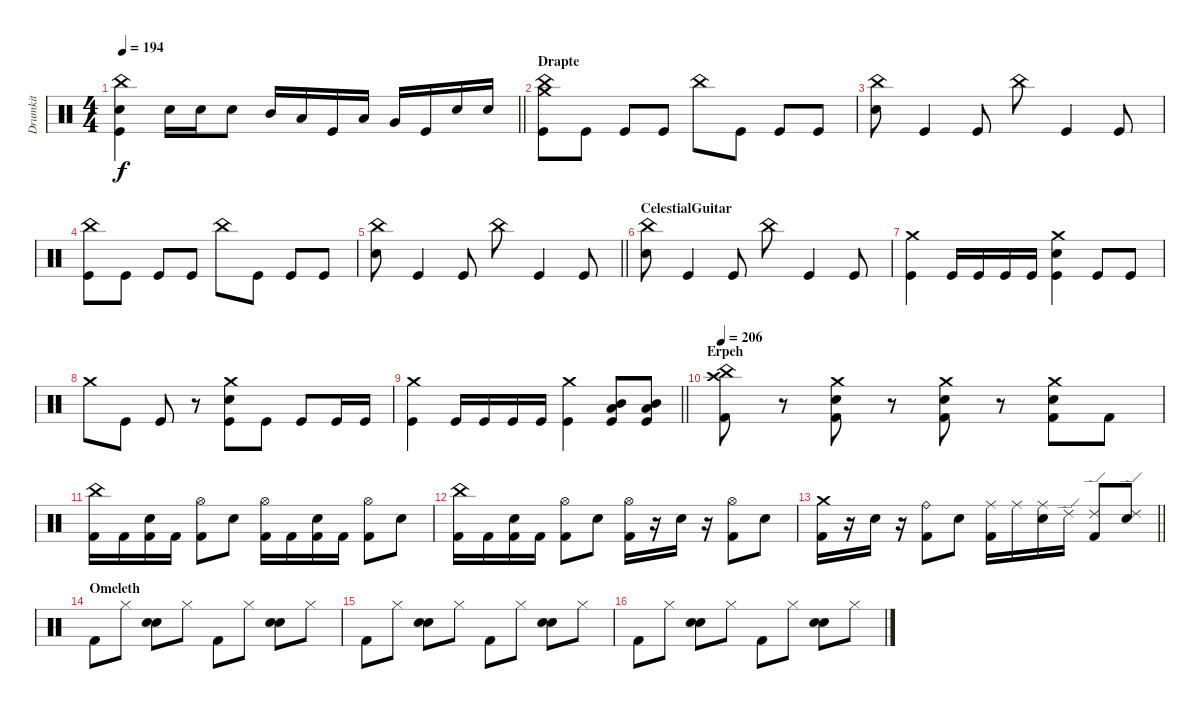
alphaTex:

\track ("Drumkit" "Drumkit") {instrument percussion}
\staff {score}
\articulation defaults
\ts (4 4)
\tempo 194
\clef neutral
\barLineRight lightlight
\ks c
("China (hit)" "Snare (hit) 2" "Kick (hit)").4{dy f} "Snare (hit) 2".16 "Snare (hit) 2".16 "Snare (hit) 2".8 "Mid Tom (hit)".16 "Low Tom (hit)".16 "Kick (hit)".16 "Low Tom (hit)".16 "Very Low Tom (hit)".16 "Kick (hit)".16 "Snare (hit) 2".16 "Snare (hit) 2".16 |
\section ("" "Drapte")
("Crash medium (hit)" "China (hit)" "Kick (hit)").8 "Kick (hit)".8 "Kick (hit)".8 "Kick (hit)".8 "China (hit)".8 "Kick (hit)".8 "Kick (hit)".8 "Kick (hit)".8 |
("China (hit)" "Snare (hit) 2").8 "Kick (hit)".4 "Kick (hit)".8 "China (hit)".8 "Kick (hit)".4 "Kick (hit)".8 |
("China (hit)" "Kick (hit)").8 "Kick (hit)".8 "Kick (hit)".8 "Kick (hit)".8 "China (hit)".8 "Kick (hit)".8 "Kick (hit)".8 "Kick (hit)".8 |
\barLineRight lightlight
("China (hit)" "Snare (hit) 2").8 "Kick (hit)".4 "Kick (hit)".8 "China (hit)".8 "Kick (hit)".4 "Kick (hit)".8 |
\section ("" "CelestialGuitar")
("China (hit)" "Snare (hit) 2").8 "Kick (hit)".4 "Kick (hit)".8 "China (hit)".8 "Kick (hit)".4 "Kick (hit)".8 |
("Kick (hit)" "Crash medium (hit)").4 "Kick (hit)".16 "Kick (hit)".16 "Kick (hit)".16 "Kick (hit)".16 ("Kick (hit)" "Crash medium (hit)" "Snare (hit) 2").4 "Kick (hit)".8 "Kick (hit)".8 |
"Crash medium (hit)".8 "Kick (hit)".8 "Kick (hit)".8 r.8 ("Kick (hit)" "Crash medium (hit)" "Snare (hit) 2").8 "Kick (hit)".8 "Kick (hit)".8 "Kick (hit)".16 "Kick (hit)".16 |
\barLineRight lightlight
("Kick (hit)" "Crash medium (hit)").4 "Kick (hit)".16 "Kick (hit)".16 "Kick (hit)".16 "Kick (hit)".16 ("Kick (hit)" "Crash medium (hit)").4 ("Kick (hit)" "Mid Tom (hit)" "Low Tom (hit)").8 ("Kick (hit)" "Low Tom (hit)" "Mid Tom (hit)").8 |
\section ("" "Erpeh")
\tempo 206
("China (hit)" "Crash high (hit)" "Kick (hit) 2").8 r.8 ("Crash medium (hit)" "Electric Snare (hit)" "Kick (hit) 2").8 r.8 ("Crash medium (hit)" "Electric Snare (hit)" "Kick (hit) 2").8 r.8 ("Crash medium (hit)" "Electric Snare (hit)" "Kick (hit) 2").8 "Kick (hit) 2".8 |
("China (hit)" "Kick (hit) 2").16 "Kick (hit) 2".16 ("Electric Snare (hit)" "Kick (hit) 2").16 "Kick (hit) 2".16 ("Hi-Hat (open)" "Kick (hit) 2").8 "Electric Snare (hit)".8 ("Hi-Hat (open)" "Kick (hit) 2").16 "Kick (hit) 2".16 ("Electric Snare (hit)" "Kick (hit) 2").16 "Kick (hit) 2".16 ("Hi-Hat (open)" "Kick (hit) 2").8 "Electric Snare (hit)".8 |
("China (hit)" "Kick (hit) 2").16 "Kick (hit) 2".16 ("Electric Snare (hit)" "Kick (hit) 2").16 "Kick (hit) 2".16 ("Hi-Hat (open)" "Kick (hit) 2").8 "Electric Snare (hit)".8 ("Hi-Hat (open)" "Kick (hit) 2").16 r.16 "Electric Snare (hit)".16 r.16 ("Hi-Hat (open)" "Kick (hit) 2").8 "Electric Snare (hit)".8 |
\barLineRight lightlight
("Crash medium (hit)" "Kick (hit) 2").16 r.16 "Electric Snare (hit)".16 r.16 ("Ride (bell)" "Kick (hit) 2").8 "Electric Snare (hit)".8 ("Ride (middle)" "Kick (hit) 2").16 "Ride (middle)".16 ("Ride (middle)" "Electric Snare (hit)").16 "Ride (edge) 2".16 ("Ride (edge) 2" "Kick (hit) 2").8 ("Ride (edge) 2" "Electric Snare (hit)").8 |
\section ("" "Omeleth")
"Kick (hit) 2".8 "Hi-Hat (closed)".8 ("Hand Clap (hit)" "Snare (hit) 2").8 "Hi-Hat (closed)".8 "Kick (hit) 2".8 "Hi-Hat (closed)".8 ("Hand Clap (hit)" "Snare (hit) 2").8 "Hi-Hat (closed)".8 |
"Kick (hit) 2".8 "Hi-Hat (closed)".8 ("Hand Clap (hit)" "Snare (hit) 2").8 "Hi-Hat (closed)".8 "Kick (hit) 2".8 "Hi-Hat (closed)".8 ("Hand Clap (hit)" "Snare (hit) 2").8 "Hi-Hat (closed)".8 |
"Kick (hit) 2".8 "Hi-Hat (closed)".8 ("Hand Clap (hit)" "Snare (hit) 2").8 "Hi-Hat (closed)".8 "Kick (hit) 2".8 "Hi-Hat (closed)".8 ("Hand Clap (hit)" "Snare (hit) 2").8 "Hi-Hat (closed)".8
